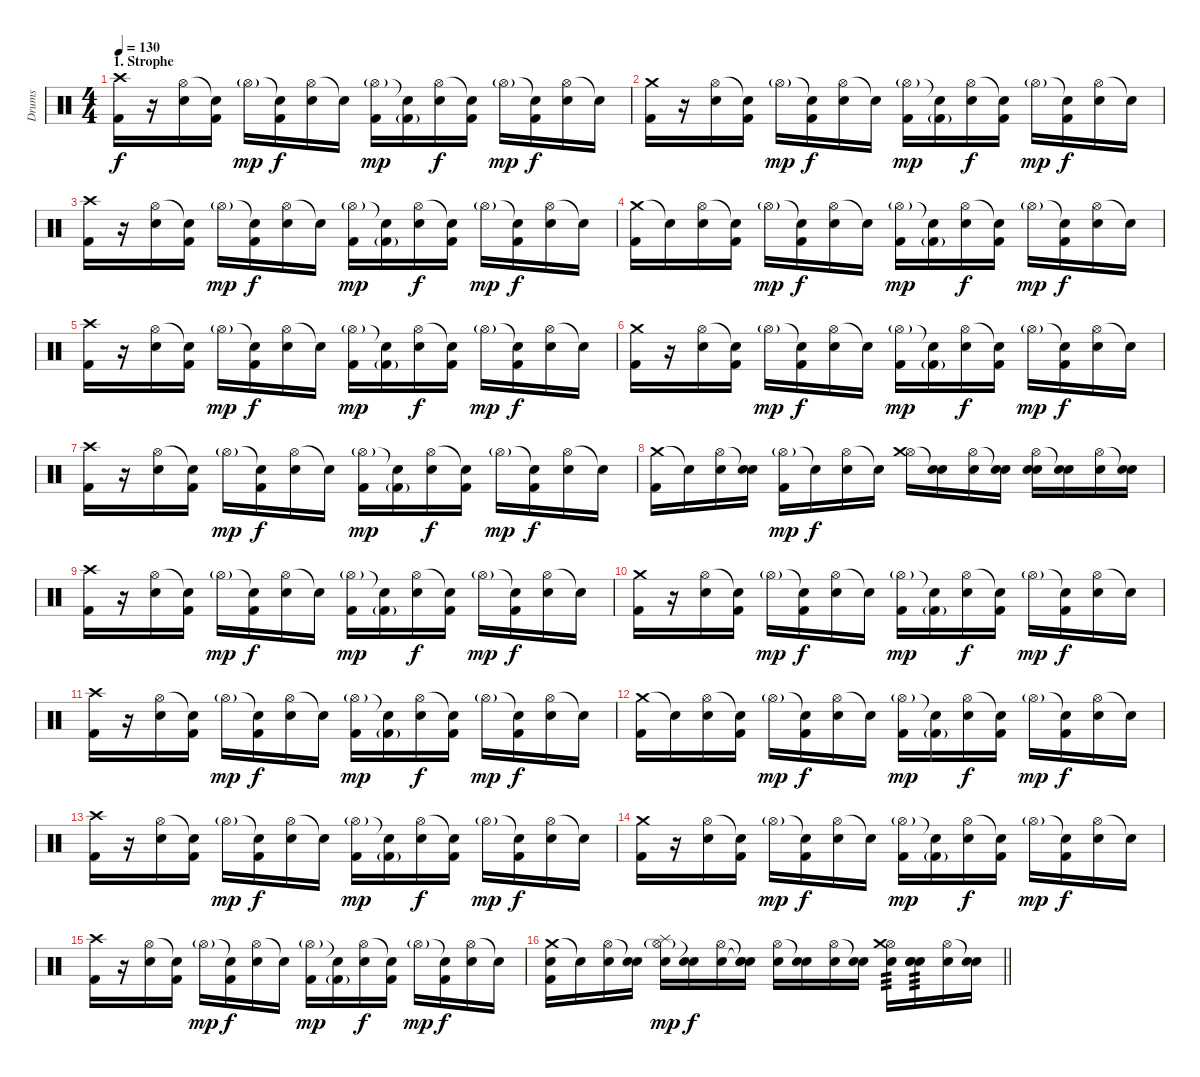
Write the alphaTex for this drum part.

\track ("Drums" "Drums") {instrument percussion}
\staff {score}
\articulation defaults
\ts (4 4)
\section ("" "1. Strophe")
\tempo 130
\clef neutral
\ks c
("Crash high (hit)" "Kick (hit) 2").16{dy f} r.16 ("Hi-Hat (open)" "Snare (hit) 2").16 ("Snare (hit)"{t} "Kick (hit) 2").16 "Hi-Hat (open)"{g}.16{dy mp} ("Snare (hit)"{t} "Kick (hit) 2").16{dy f} ("Hi-Hat (open)" "Snare (hit) 2").16 "Snare (hit)"{t}.16 ("Hi-Hat (open)"{g} "Kick (hit) 2").16{dy mp} ("Snare (hit)"{t} "Kick (hit) 2"{g}).16 ("Hi-Hat (open)" "Snare (hit) 2").16{dy f} ("Snare (hit)"{t} "Kick (hit) 2").16 "Hi-Hat (open)"{g}.16{dy mp} ("Snare (hit)"{t} "Kick (hit) 2").16{dy f} ("Hi-Hat (open)" "Snare (hit) 2").16 "Snare (hit)"{t}.16 |
("Crash medium (hit)" "Kick (hit) 2").16 r.16 ("Hi-Hat (open)" "Snare (hit) 2").16 ("Snare (hit)"{t} "Kick (hit) 2").16 "Hi-Hat (open)"{g}.16{dy mp} ("Snare (hit)"{t} "Kick (hit) 2").16{dy f} ("Hi-Hat (open)" "Snare (hit) 2").16 "Snare (hit)"{t}.16 ("Hi-Hat (open)"{g} "Kick (hit) 2").16{dy mp} ("Snare (hit)"{t} "Kick (hit) 2"{g}).16 ("Hi-Hat (open)" "Snare (hit) 2").16{dy f} ("Snare (hit)"{t} "Kick (hit) 2").16 "Hi-Hat (open)"{g}.16{dy mp} ("Snare (hit)"{t} "Kick (hit) 2").16{dy f} ("Hi-Hat (open)" "Snare (hit) 2").16 "Snare (hit)"{t}.16 |
("Crash high (hit)" "Kick (hit) 2").16 r.16 ("Hi-Hat (open)" "Snare (hit) 2").16 ("Snare (hit)"{t} "Kick (hit) 2").16 "Hi-Hat (open)"{g}.16{dy mp} ("Snare (hit)"{t} "Kick (hit) 2").16{dy f} ("Hi-Hat (open)" "Snare (hit) 2").16 "Snare (hit)"{t}.16 ("Hi-Hat (open)"{g} "Kick (hit) 2").16{dy mp} ("Snare (hit)"{t} "Kick (hit) 2"{g}).16 ("Hi-Hat (open)" "Snare (hit) 2").16{dy f} ("Snare (hit)"{t} "Kick (hit) 2").16 "Hi-Hat (open)"{g}.16{dy mp} ("Snare (hit)"{t} "Kick (hit) 2").16{dy f} ("Hi-Hat (open)" "Snare (hit) 2").16 "Snare (hit)"{t}.16 |
("Crash medium (hit)" "Kick (hit) 2").16 "Snare (hit)"{t}.16 ("Hi-Hat (open)" "Snare (hit) 2").16 ("Snare (hit)"{t} "Kick (hit) 2").16 "Hi-Hat (open)"{g}.16{dy mp} ("Snare (hit)"{t} "Kick (hit) 2").16{dy f} ("Hi-Hat (open)" "Snare (hit) 2").16 "Snare (hit)"{t}.16 ("Hi-Hat (open)"{g} "Kick (hit) 2").16{dy mp} ("Snare (hit)"{t} "Kick (hit) 2"{g}).16 ("Hi-Hat (open)" "Snare (hit) 2").16{dy f} ("Snare (hit)"{t} "Kick (hit) 2").16 "Hi-Hat (open)"{g}.16{dy mp} ("Snare (hit)"{t} "Kick (hit) 2").16{dy f} ("Hi-Hat (open)" "Snare (hit) 2").16 "Snare (hit)"{t}.16 |
("Crash high (hit)" "Kick (hit) 2").16 r.16 ("Hi-Hat (open)" "Snare (hit) 2").16 ("Snare (hit)"{t} "Kick (hit) 2").16 "Hi-Hat (open)"{g}.16{dy mp} ("Snare (hit)"{t} "Kick (hit) 2").16{dy f} ("Hi-Hat (open)" "Snare (hit) 2").16 "Snare (hit)"{t}.16 ("Hi-Hat (open)"{g} "Kick (hit) 2").16{dy mp} ("Snare (hit)"{t} "Kick (hit) 2"{g}).16 ("Hi-Hat (open)" "Snare (hit) 2").16{dy f} ("Snare (hit)"{t} "Kick (hit) 2").16 "Hi-Hat (open)"{g}.16{dy mp} ("Snare (hit)"{t} "Kick (hit) 2").16{dy f} ("Hi-Hat (open)" "Snare (hit) 2").16 "Snare (hit)"{t}.16 |
("Crash medium (hit)" "Kick (hit) 2").16 r.16 ("Hi-Hat (open)" "Snare (hit) 2").16 ("Snare (hit)"{t} "Kick (hit) 2").16 "Hi-Hat (open)"{g}.16{dy mp} ("Snare (hit)"{t} "Kick (hit) 2").16{dy f} ("Hi-Hat (open)" "Snare (hit) 2").16 "Snare (hit)"{t}.16 ("Hi-Hat (open)"{g} "Kick (hit) 2").16{dy mp} ("Snare (hit)"{t} "Kick (hit) 2"{g}).16 ("Hi-Hat (open)" "Snare (hit) 2").16{dy f} ("Snare (hit)"{t} "Kick (hit) 2").16 "Hi-Hat (open)"{g}.16{dy mp} ("Snare (hit)"{t} "Kick (hit) 2").16{dy f} ("Hi-Hat (open)" "Snare (hit) 2").16 "Snare (hit)"{t}.16 |
("Crash high (hit)" "Kick (hit) 2").16 r.16 ("Hi-Hat (open)" "Snare (hit) 2").16 ("Snare (hit)"{t} "Kick (hit) 2").16 "Hi-Hat (open)"{g}.16{dy mp} ("Snare (hit)"{t} "Kick (hit) 2").16{dy f} ("Hi-Hat (open)" "Snare (hit) 2").16 "Snare (hit)"{t}.16 ("Hi-Hat (open)"{g} "Kick (hit) 2").16{dy mp} ("Snare (hit)"{t} "Kick (hit) 2"{g}).16 ("Hi-Hat (open)" "Snare (hit) 2").16{dy f} ("Snare (hit)"{t} "Kick (hit) 2").16 "Hi-Hat (open)"{g}.16{dy mp} ("Snare (hit)"{t} "Kick (hit) 2").16{dy f} ("Hi-Hat (open)" "Snare (hit) 2").16 "Snare (hit)"{t}.16 |
("Crash medium (hit)" "Kick (hit) 2").16 "Snare (hit)"{t}.16 ("Hi-Hat (open)" "Snare (hit) 2").16 ("Snare (hit)"{t} "Snare (hit) 2").16 ("Hi-Hat (open)"{g} "Kick (hit) 2").16{dy mp} "Snare (hit)"{t}.16{dy f} ("Hi-Hat (open)" "Snare (hit) 2").16 "Snare (hit)"{t}.16 ("Hi-Hat (open)" "Crash medium (hit)").16 ("Snare (hit)"{t} "Snare (hit) 2").16 ("Hi-Hat (open)" "Snare (hit) 2").16 ("Snare (hit)"{t} "Snare (hit) 2").16 ("Hi-Hat (open)" "Electric Snare (hit)" "Snare (hit) 2").16 ("Snare (hit)"{t} "Snare (hit) 2").16 ("Hi-Hat (open)" "Snare (hit) 2").16 ("Snare (hit)"{t} "Snare (hit) 2").16 |
("Crash high (hit)" "Kick (hit) 2").16 r.16 ("Hi-Hat (open)" "Snare (hit) 2").16 ("Snare (hit)"{t} "Kick (hit) 2").16 "Hi-Hat (open)"{g}.16{dy mp} ("Snare (hit)"{t} "Kick (hit) 2").16{dy f} ("Hi-Hat (open)" "Snare (hit) 2").16 "Snare (hit)"{t}.16 ("Hi-Hat (open)"{g} "Kick (hit) 2").16{dy mp} ("Snare (hit)"{t} "Kick (hit) 2"{g}).16 ("Hi-Hat (open)" "Snare (hit) 2").16{dy f} ("Snare (hit)"{t} "Kick (hit) 2").16 "Hi-Hat (open)"{g}.16{dy mp} ("Snare (hit)"{t} "Kick (hit) 2").16{dy f} ("Hi-Hat (open)" "Snare (hit) 2").16 "Snare (hit)"{t}.16 |
("Crash medium (hit)" "Kick (hit) 2").16 r.16 ("Hi-Hat (open)" "Snare (hit) 2").16 ("Snare (hit)"{t} "Kick (hit) 2").16 "Hi-Hat (open)"{g}.16{dy mp} ("Snare (hit)"{t} "Kick (hit) 2").16{dy f} ("Hi-Hat (open)" "Snare (hit) 2").16 "Snare (hit)"{t}.16 ("Hi-Hat (open)"{g} "Kick (hit) 2").16{dy mp} ("Snare (hit)"{t} "Kick (hit) 2"{g}).16 ("Hi-Hat (open)" "Snare (hit) 2").16{dy f} ("Snare (hit)"{t} "Kick (hit) 2").16 "Hi-Hat (open)"{g}.16{dy mp} ("Snare (hit)"{t} "Kick (hit) 2").16{dy f} ("Hi-Hat (open)" "Snare (hit) 2").16 "Snare (hit)"{t}.16 |
("Crash high (hit)" "Kick (hit) 2").16 r.16 ("Hi-Hat (open)" "Snare (hit) 2").16 ("Snare (hit)"{t} "Kick (hit) 2").16 "Hi-Hat (open)"{g}.16{dy mp} ("Snare (hit)"{t} "Kick (hit) 2").16{dy f} ("Hi-Hat (open)" "Snare (hit) 2").16 "Snare (hit)"{t}.16 ("Hi-Hat (open)"{g} "Kick (hit) 2").16{dy mp} ("Snare (hit)"{t} "Kick (hit) 2"{g}).16 ("Hi-Hat (open)" "Snare (hit) 2").16{dy f} ("Snare (hit)"{t} "Kick (hit) 2").16 "Hi-Hat (open)"{g}.16{dy mp} ("Snare (hit)"{t} "Kick (hit) 2").16{dy f} ("Hi-Hat (open)" "Snare (hit) 2").16 "Snare (hit)"{t}.16 |
("Crash medium (hit)" "Kick (hit) 2").16 "Snare (hit)"{t}.16 ("Hi-Hat (open)" "Snare (hit) 2").16 ("Snare (hit)"{t} "Kick (hit) 2").16 "Hi-Hat (open)"{g}.16{dy mp} ("Snare (hit)"{t} "Kick (hit) 2").16{dy f} ("Hi-Hat (open)" "Snare (hit) 2").16 "Snare (hit)"{t}.16 ("Hi-Hat (open)"{g} "Kick (hit) 2").16{dy mp} ("Snare (hit)"{t} "Kick (hit) 2"{g}).16 ("Hi-Hat (open)" "Snare (hit) 2").16{dy f} ("Snare (hit)"{t} "Kick (hit) 2").16 "Hi-Hat (open)"{g}.16{dy mp} ("Snare (hit)"{t} "Kick (hit) 2").16{dy f} ("Hi-Hat (open)" "Snare (hit) 2").16 "Snare (hit)"{t}.16 |
("Crash high (hit)" "Kick (hit) 2").16 r.16 ("Hi-Hat (open)" "Snare (hit) 2").16 ("Snare (hit)"{t} "Kick (hit) 2").16 "Hi-Hat (open)"{g}.16{dy mp} ("Snare (hit)"{t} "Kick (hit) 2").16{dy f} ("Hi-Hat (open)" "Snare (hit) 2").16 "Snare (hit)"{t}.16 ("Hi-Hat (open)"{g} "Kick (hit) 2").16{dy mp} ("Snare (hit)"{t} "Kick (hit) 2"{g}).16 ("Hi-Hat (open)" "Snare (hit) 2").16{dy f} ("Snare (hit)"{t} "Kick (hit) 2").16 "Hi-Hat (open)"{g}.16{dy mp} ("Snare (hit)"{t} "Kick (hit) 2").16{dy f} ("Hi-Hat (open)" "Snare (hit) 2").16 "Snare (hit)"{t}.16 |
("Crash medium (hit)" "Kick (hit) 2").16 r.16 ("Hi-Hat (open)" "Snare (hit) 2").16 ("Snare (hit)"{t} "Kick (hit) 2").16 "Hi-Hat (open)"{g}.16{dy mp} ("Snare (hit)"{t} "Kick (hit) 2").16{dy f} ("Hi-Hat (open)" "Snare (hit) 2").16 "Snare (hit)"{t}.16 ("Hi-Hat (open)"{g} "Kick (hit) 2").16{dy mp} ("Snare (hit)"{t} "Kick (hit) 2"{g}).16 ("Hi-Hat (open)" "Snare (hit) 2").16{dy f} ("Snare (hit)"{t} "Kick (hit) 2").16 "Hi-Hat (open)"{g}.16{dy mp} ("Snare (hit)"{t} "Kick (hit) 2").16{dy f} ("Hi-Hat (open)" "Snare (hit) 2").16 "Snare (hit)"{t}.16 |
("Crash high (hit)" "Kick (hit) 2").16 r.16 ("Hi-Hat (open)" "Snare (hit) 2").16 ("Snare (hit)"{t} "Kick (hit) 2").16 "Hi-Hat (open)"{g}.16{dy mp} ("Snare (hit)"{t} "Kick (hit) 2").16{dy f} ("Hi-Hat (open)" "Snare (hit) 2").16 "Snare (hit)"{t}.16 ("Hi-Hat (open)"{g} "Kick (hit) 2").16{dy mp} ("Snare (hit)"{t} "Kick (hit) 2"{g}).16 ("Hi-Hat (open)" "Snare (hit) 2").16{dy f} ("Snare (hit)"{t} "Kick (hit) 2").16 "Hi-Hat (open)"{g}.16{dy mp} ("Snare (hit)"{t} "Kick (hit) 2").16{dy f} ("Hi-Hat (open)" "Snare (hit) 2").16 "Snare (hit)"{t}.16 |
\barLineRight lightlight
("Crash medium (hit)" "Snare (hit) 2" "Kick (hit) 2").16 "Snare (hit)"{t}.16 ("Hi-Hat (open)" "Snare (hit) 2").16 ("Snare (hit)"{t} "Snare (hit) 2").16 ("Hi-Hat (open)"{g} "Splash (hit)" "Snare (hit) 2").16{dy mp} ("Snare (hit)"{t} "Snare (hit) 2").16{dy f} ("Hi-Hat (open)" "Snare (hit) 2").16 ("Snare (hit)"{t} "Snare (hit)"{t} "Snare (hit) 2").16 ("Hi-Hat (open)" "Snare (hit) 2").16 ("Snare (hit)"{t} "Snare (hit) 2").16 ("Hi-Hat (open)" "Snare (hit) 2").16 ("Snare (hit)"{t} "Snare (hit) 2").16 ("Hi-Hat (open)" "Crash medium (hit)" "Snare (hit) 2").16{tp 3} ("Snare (hit) 2" "Snare (hit) 2" "Snare (hit) 2").16{tp 3} ("Hi-Hat (open)" "Snare (hit) 2").16 ("Snare (hit)"{t} "Snare (hit) 2").16
